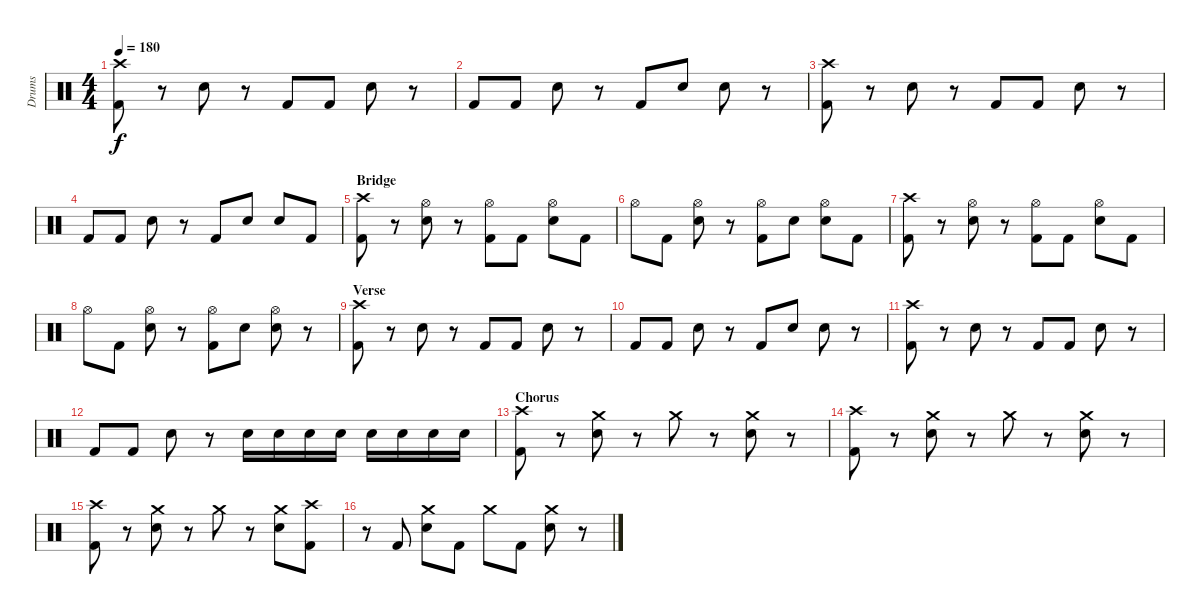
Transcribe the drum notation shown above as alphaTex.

\track ("Drums" "Drums") {instrument percussion}
\staff {score}
\articulation defaults
\ts (4 4)
\tempo 180
\clef neutral
\ks c
("Crash high (hit)" "Kick (hit) 2").8{dy f} r.8 "Electric Snare (hit)".8 r.8 "Kick (hit) 2".8 "Kick (hit) 2".8 "Electric Snare (hit)".8 r.8 |
"Kick (hit) 2".8 "Kick (hit) 2".8 "Electric Snare (hit)".8 r.8 "Kick (hit) 2".8 "Electric Snare (hit)".8 "Electric Snare (hit)".8 r.8 |
("Crash high (hit)" "Kick (hit) 2").8 r.8 "Electric Snare (hit)".8 r.8 "Kick (hit) 2".8 "Kick (hit) 2".8 "Electric Snare (hit)".8 r.8 |
"Kick (hit) 2".8 "Kick (hit) 2".8 "Electric Snare (hit)".8 r.8 "Kick (hit) 2".8 "Electric Snare (hit)".8 "Electric Snare (hit)".8 "Kick (hit) 2".8 |
\section ("" "Bridge")
("Crash high (hit)" "Kick (hit) 2").8 r.8 ("Hi-Hat (open)" "Electric Snare (hit)").8 r.8 ("Hi-Hat (open)" "Kick (hit) 2").8 "Kick (hit) 2".8 ("Hi-Hat (open)" "Electric Snare (hit)").8 "Kick (hit) 2".8 |
"Hi-Hat (open)".8 "Kick (hit) 2".8 ("Hi-Hat (open)" "Electric Snare (hit)").8 r.8 ("Hi-Hat (open)" "Kick (hit) 2").8 "Electric Snare (hit)".8 ("Hi-Hat (open)" "Electric Snare (hit)").8 "Kick (hit) 2".8 |
("Crash high (hit)" "Kick (hit) 2").8 r.8 ("Hi-Hat (open)" "Electric Snare (hit)").8 r.8 ("Hi-Hat (open)" "Kick (hit) 2").8 "Kick (hit) 2".8 ("Hi-Hat (open)" "Electric Snare (hit)").8 "Kick (hit) 2".8 |
"Hi-Hat (open)".8 "Kick (hit) 2".8 ("Hi-Hat (open)" "Electric Snare (hit)").8 r.8 ("Hi-Hat (open)" "Kick (hit) 2").8 "Electric Snare (hit)".8 ("Hi-Hat (open)" "Electric Snare (hit)").8 r.8 |
\section ("" "Verse")
("Crash high (hit)" "Kick (hit) 2").8 r.8 "Electric Snare (hit)".8 r.8 "Kick (hit) 2".8 "Kick (hit) 2".8 "Electric Snare (hit)".8 r.8 |
"Kick (hit) 2".8 "Kick (hit) 2".8 "Electric Snare (hit)".8 r.8 "Kick (hit) 2".8 "Electric Snare (hit)".8 "Electric Snare (hit)".8 r.8 |
("Crash high (hit)" "Kick (hit) 2").8 r.8 "Electric Snare (hit)".8 r.8 "Kick (hit) 2".8 "Kick (hit) 2".8 "Electric Snare (hit)".8 r.8 |
"Kick (hit) 2".8 "Kick (hit) 2".8 "Electric Snare (hit)".8 r.8 "Electric Snare (hit)".16 "Electric Snare (hit)".16 "Electric Snare (hit)".16 "Electric Snare (hit)".16 "Electric Snare (hit)".16 "Electric Snare (hit)".16 "Electric Snare (hit)".16 "Electric Snare (hit)".16 |
\section ("" "Chorus")
("Crash high (hit)" "Kick (hit) 2").8 r.8 ("Crash medium (hit)" "Electric Snare (hit)").8 r.8 "Crash medium (hit)".8 r.8 ("Crash medium (hit)" "Electric Snare (hit)").8 r.8 |
("Crash high (hit)" "Kick (hit) 2").8 r.8 ("Crash medium (hit)" "Electric Snare (hit)").8 r.8 "Crash medium (hit)".8 r.8 ("Crash medium (hit)" "Electric Snare (hit)").8 r.8 |
("Crash high (hit)" "Kick (hit) 2").8 r.8 ("Crash medium (hit)" "Electric Snare (hit)").8 r.8 "Crash medium (hit)".8 r.8 ("Crash medium (hit)" "Electric Snare (hit)").8 ("Crash high (hit)" "Kick (hit) 2").8 |
r.8 "Kick (hit) 2".8 ("Crash medium (hit)" "Electric Snare (hit)").8 "Kick (hit) 2".8 "Crash medium (hit)".8 "Kick (hit) 2".8 ("Crash medium (hit)" "Electric Snare (hit)").8 r.8
